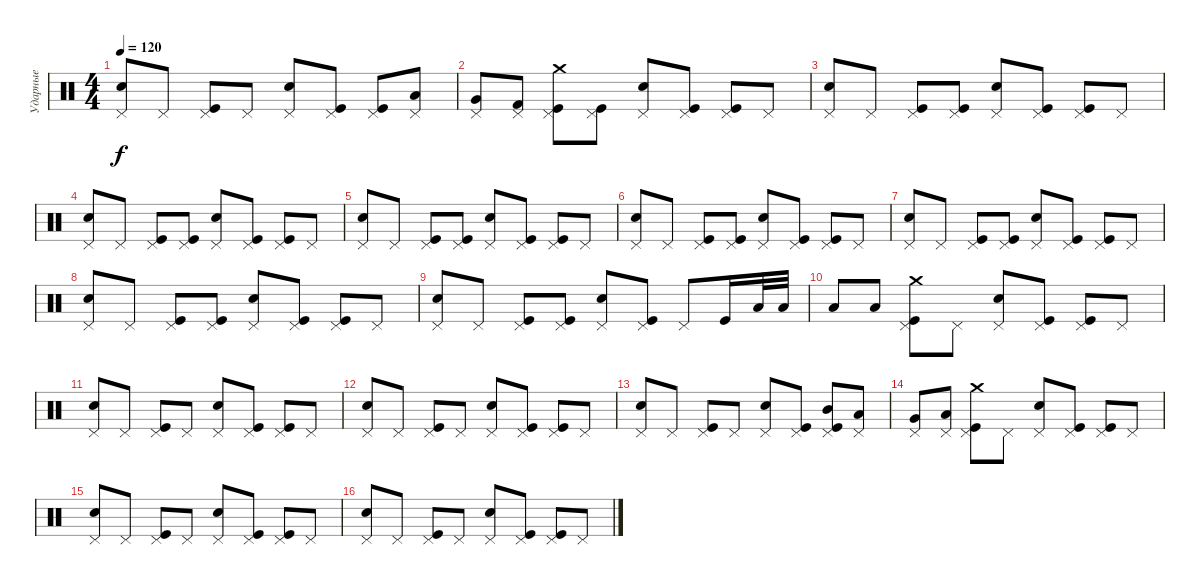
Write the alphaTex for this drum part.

\track ("Ударные" "Ударные") {instrument percussion}
\staff {score}
\articulation defaults
\ts (4 4)
\tempo 120
\clef neutral
\ks c
("Electric Snare (hit)" "Pedal Hi-Hat (hit)").8{dy f} "Pedal Hi-Hat (hit)".8 ("Kick (hit)" "Pedal Hi-Hat (hit)").8 "Pedal Hi-Hat (hit)".8 ("Electric Snare (hit)" "Pedal Hi-Hat (hit)").8 ("Kick (hit)" "Pedal Hi-Hat (hit)").8 ("Kick (hit)" "Pedal Hi-Hat (hit)").8 ("Pedal Hi-Hat (hit)" "Low Tom (hit)").8 |
("Pedal Hi-Hat (hit)" "Very Low Tom (hit)").8 ("Pedal Hi-Hat (hit)" "Kick (hit) 2").8 ("Kick (hit)" "Pedal Hi-Hat (hit)" "Crash medium (hit)").8 ("Kick (hit)" "Pedal Hi-Hat (hit)").8 ("Electric Snare (hit)" "Pedal Hi-Hat (hit)").8 ("Kick (hit)" "Pedal Hi-Hat (hit)").8 ("Kick (hit)" "Pedal Hi-Hat (hit)").8 "Pedal Hi-Hat (hit)".8 |
("Electric Snare (hit)" "Pedal Hi-Hat (hit)").8 "Pedal Hi-Hat (hit)".8 ("Kick (hit)" "Pedal Hi-Hat (hit)").8 ("Kick (hit)" "Pedal Hi-Hat (hit)").8 ("Electric Snare (hit)" "Pedal Hi-Hat (hit)").8 ("Kick (hit)" "Pedal Hi-Hat (hit)").8 ("Kick (hit)" "Pedal Hi-Hat (hit)").8 "Pedal Hi-Hat (hit)".8 |
("Electric Snare (hit)" "Pedal Hi-Hat (hit)").8 "Pedal Hi-Hat (hit)".8 ("Kick (hit)" "Pedal Hi-Hat (hit)").8 ("Kick (hit)" "Pedal Hi-Hat (hit)").8 ("Electric Snare (hit)" "Pedal Hi-Hat (hit)").8 ("Kick (hit)" "Pedal Hi-Hat (hit)").8 ("Kick (hit)" "Pedal Hi-Hat (hit)").8 "Pedal Hi-Hat (hit)".8 |
("Electric Snare (hit)" "Pedal Hi-Hat (hit)").8 "Pedal Hi-Hat (hit)".8 ("Kick (hit)" "Pedal Hi-Hat (hit)").8 ("Kick (hit)" "Pedal Hi-Hat (hit)").8 ("Electric Snare (hit)" "Pedal Hi-Hat (hit)").8 ("Kick (hit)" "Pedal Hi-Hat (hit)").8 ("Kick (hit)" "Pedal Hi-Hat (hit)").8 "Pedal Hi-Hat (hit)".8 |
("Electric Snare (hit)" "Pedal Hi-Hat (hit)").8 "Pedal Hi-Hat (hit)".8 ("Kick (hit)" "Pedal Hi-Hat (hit)").8 ("Kick (hit)" "Pedal Hi-Hat (hit)").8 ("Electric Snare (hit)" "Pedal Hi-Hat (hit)").8 ("Kick (hit)" "Pedal Hi-Hat (hit)").8 ("Kick (hit)" "Pedal Hi-Hat (hit)").8 "Pedal Hi-Hat (hit)".8 |
("Electric Snare (hit)" "Pedal Hi-Hat (hit)").8 "Pedal Hi-Hat (hit)".8 ("Kick (hit)" "Pedal Hi-Hat (hit)").8 ("Kick (hit)" "Pedal Hi-Hat (hit)").8 ("Electric Snare (hit)" "Pedal Hi-Hat (hit)").8 ("Kick (hit)" "Pedal Hi-Hat (hit)").8 ("Kick (hit)" "Pedal Hi-Hat (hit)").8 "Pedal Hi-Hat (hit)".8 |
("Electric Snare (hit)" "Pedal Hi-Hat (hit)").8 "Pedal Hi-Hat (hit)".8 ("Kick (hit)" "Pedal Hi-Hat (hit)").8 ("Kick (hit)" "Pedal Hi-Hat (hit)").8 ("Electric Snare (hit)" "Pedal Hi-Hat (hit)").8 ("Kick (hit)" "Pedal Hi-Hat (hit)").8 ("Kick (hit)" "Pedal Hi-Hat (hit)").8 "Pedal Hi-Hat (hit)".8 |
("Electric Snare (hit)" "Pedal Hi-Hat (hit)").8 "Pedal Hi-Hat (hit)".8 ("Kick (hit)" "Pedal Hi-Hat (hit)").8 ("Kick (hit)" "Pedal Hi-Hat (hit)").8 ("Electric Snare (hit)" "Pedal Hi-Hat (hit)").8 ("Kick (hit)" "Pedal Hi-Hat (hit)").8 "Pedal Hi-Hat (hit)".8 "Kick (hit)".16 "Low Tom (hit)".32 "Low Tom (hit)".32 |
"Low Tom (hit)".8 "Low Tom (hit)".8 ("Kick (hit)" "Pedal Hi-Hat (hit)" "Crash medium (hit)").8 "Pedal Hi-Hat (hit)".8 ("Electric Snare (hit)" "Pedal Hi-Hat (hit)").8 ("Kick (hit)" "Pedal Hi-Hat (hit)").8 ("Kick (hit)" "Pedal Hi-Hat (hit)").8 "Pedal Hi-Hat (hit)".8 |
("Electric Snare (hit)" "Pedal Hi-Hat (hit)").8 "Pedal Hi-Hat (hit)".8 ("Kick (hit)" "Pedal Hi-Hat (hit)").8 "Pedal Hi-Hat (hit)".8 ("Electric Snare (hit)" "Pedal Hi-Hat (hit)").8 ("Kick (hit)" "Pedal Hi-Hat (hit)").8 ("Kick (hit)" "Pedal Hi-Hat (hit)").8 "Pedal Hi-Hat (hit)".8 |
("Electric Snare (hit)" "Pedal Hi-Hat (hit)").8 "Pedal Hi-Hat (hit)".8 ("Kick (hit)" "Pedal Hi-Hat (hit)").8 "Pedal Hi-Hat (hit)".8 ("Electric Snare (hit)" "Pedal Hi-Hat (hit)").8 ("Kick (hit)" "Pedal Hi-Hat (hit)").8 ("Kick (hit)" "Pedal Hi-Hat (hit)").8 "Pedal Hi-Hat (hit)".8 |
("Electric Snare (hit)" "Pedal Hi-Hat (hit)").8 "Pedal Hi-Hat (hit)".8 ("Kick (hit)" "Pedal Hi-Hat (hit)").8 "Pedal Hi-Hat (hit)".8 ("Electric Snare (hit)" "Pedal Hi-Hat (hit)").8 ("Kick (hit)" "Pedal Hi-Hat (hit)").8 ("Kick (hit)" "Pedal Hi-Hat (hit)" "Mid Tom (hit)").8 ("Pedal Hi-Hat (hit)" "Low Tom (hit)").8 |
("Pedal Hi-Hat (hit)" "Very Low Tom (hit)").8 ("Pedal Hi-Hat (hit)" "Low Floor Tom (hit)").8 ("Kick (hit)" "Pedal Hi-Hat (hit)" "Crash medium (hit)").8 "Pedal Hi-Hat (hit)".8 ("Electric Snare (hit)" "Pedal Hi-Hat (hit)").8 ("Kick (hit)" "Pedal Hi-Hat (hit)").8 ("Kick (hit)" "Pedal Hi-Hat (hit)").8 "Pedal Hi-Hat (hit)".8 |
("Electric Snare (hit)" "Pedal Hi-Hat (hit)").8 "Pedal Hi-Hat (hit)".8 ("Kick (hit)" "Pedal Hi-Hat (hit)").8 "Pedal Hi-Hat (hit)".8 ("Electric Snare (hit)" "Pedal Hi-Hat (hit)").8 ("Kick (hit)" "Pedal Hi-Hat (hit)").8 ("Kick (hit)" "Pedal Hi-Hat (hit)").8 "Pedal Hi-Hat (hit)".8 |
("Electric Snare (hit)" "Pedal Hi-Hat (hit)").8 "Pedal Hi-Hat (hit)".8 ("Kick (hit)" "Pedal Hi-Hat (hit)").8 "Pedal Hi-Hat (hit)".8 ("Electric Snare (hit)" "Pedal Hi-Hat (hit)").8 ("Kick (hit)" "Pedal Hi-Hat (hit)").8 ("Kick (hit)" "Pedal Hi-Hat (hit)").8 "Pedal Hi-Hat (hit)".8
